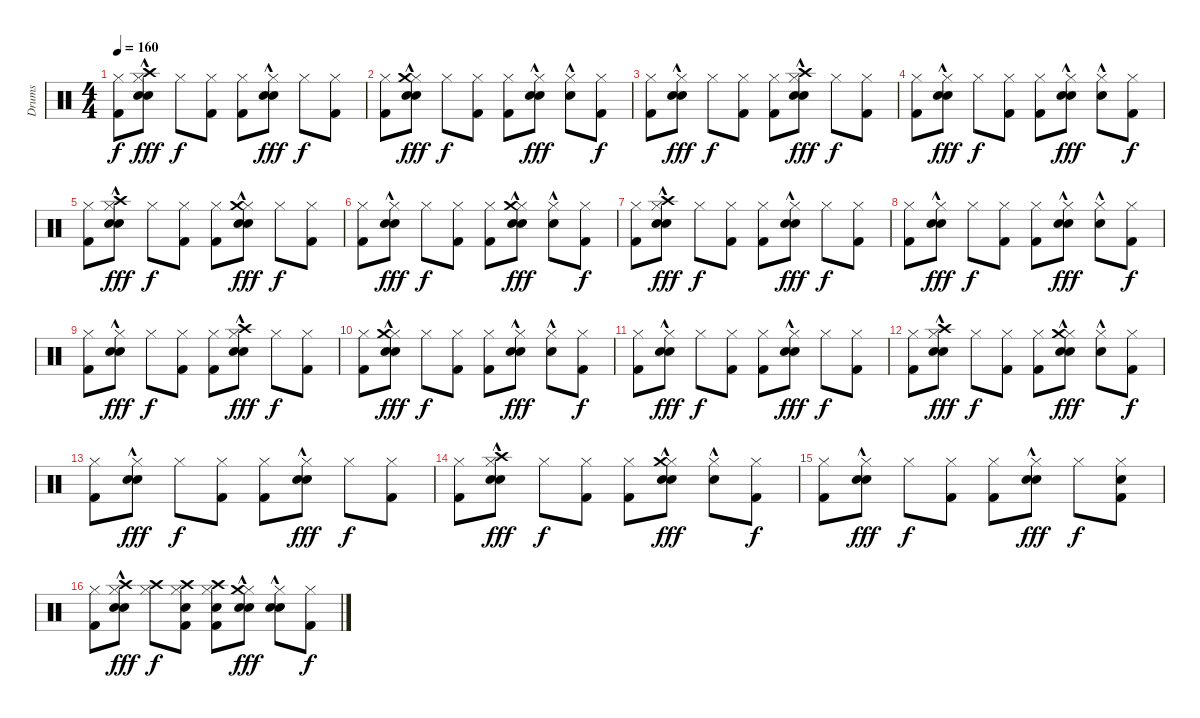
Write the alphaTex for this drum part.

\track ("Drums" "Drums") {instrument percussion}
\staff {score}
\articulation defaults
\ts (4 4)
\tempo 160
\clef neutral
\ks c
("Hi-Hat (closed)" "Kick (hit) 2").8{dy f} ("Hi-Hat (closed)" "Electric Snare (hit)" "Crash high (hit)" "Hand Clap (hit)"{hac}).8{dy fff} "Hi-Hat (closed)".8{dy f} ("Hi-Hat (closed)" "Kick (hit) 2").8 ("Hi-Hat (closed)" "Kick (hit) 2").8 ("Hi-Hat (closed)" "Electric Snare (hit)" "Hand Clap (hit)"{hac}).8{dy fff} "Hi-Hat (closed)".8{dy f} ("Hi-Hat (closed)" "Kick (hit) 2").8 |
("Hi-Hat (closed)" "Kick (hit) 2").8 ("Hi-Hat (closed)" "Electric Snare (hit)" "Crash medium (hit)" "Hand Clap (hit)"{hac}).8{dy fff} "Hi-Hat (closed)".8{dy f} ("Hi-Hat (closed)" "Kick (hit) 2").8 ("Hi-Hat (closed)" "Kick (hit) 2").8 ("Hi-Hat (closed)" "Electric Snare (hit)" "Hand Clap (hit)"{hac}).8{dy fff} ("Hi-Hat (closed)" "Hand Clap (hit)"{hac}).8 ("Hi-Hat (closed)" "Kick (hit) 2").8{dy f} |
("Hi-Hat (closed)" "Kick (hit) 2").8 ("Hi-Hat (closed)" "Electric Snare (hit)" "Hand Clap (hit)"{hac}).8{dy fff} "Hi-Hat (closed)".8{dy f} ("Hi-Hat (closed)" "Kick (hit) 2").8 ("Hi-Hat (closed)" "Kick (hit) 2").8 ("Hi-Hat (closed)" "Electric Snare (hit)" "Crash high (hit)" "Hand Clap (hit)"{hac}).8{dy fff} "Hi-Hat (closed)".8{dy f} ("Hi-Hat (closed)" "Kick (hit) 2").8 |
("Hi-Hat (closed)" "Kick (hit) 2").8 ("Hi-Hat (closed)" "Electric Snare (hit)" "Hand Clap (hit)"{hac}).8{dy fff} "Hi-Hat (closed)".8{dy f} ("Hi-Hat (closed)" "Kick (hit) 2").8 ("Hi-Hat (closed)" "Kick (hit) 2").8 ("Hi-Hat (closed)" "Electric Snare (hit)" "Hand Clap (hit)"{hac}).8{dy fff} ("Hi-Hat (closed)" "Hand Clap (hit)"{hac}).8 ("Hi-Hat (closed)" "Kick (hit) 2").8{dy f} |
("Hi-Hat (closed)" "Kick (hit) 2").8 ("Hi-Hat (closed)" "Electric Snare (hit)" "Crash high (hit)" "Hand Clap (hit)"{hac}).8{dy fff} "Hi-Hat (closed)".8{dy f} ("Hi-Hat (closed)" "Kick (hit) 2").8 ("Hi-Hat (closed)" "Kick (hit) 2").8 ("Hi-Hat (closed)" "Electric Snare (hit)" "Crash medium (hit)" "Hand Clap (hit)"{hac}).8{dy fff} "Hi-Hat (closed)".8{dy f} ("Hi-Hat (closed)" "Kick (hit) 2").8 |
("Hi-Hat (closed)" "Kick (hit) 2").8 ("Hi-Hat (closed)" "Electric Snare (hit)" "Hand Clap (hit)"{hac}).8{dy fff} "Hi-Hat (closed)".8{dy f} ("Hi-Hat (closed)" "Kick (hit) 2").8 ("Hi-Hat (closed)" "Kick (hit) 2").8 ("Hi-Hat (closed)" "Electric Snare (hit)" "Crash medium (hit)" "Hand Clap (hit)"{hac}).8{dy fff} ("Hi-Hat (closed)" "Hand Clap (hit)"{hac}).8 ("Hi-Hat (closed)" "Kick (hit) 2").8{dy f} |
("Hi-Hat (closed)" "Kick (hit) 2").8 ("Hi-Hat (closed)" "Electric Snare (hit)" "Crash high (hit)" "Hand Clap (hit)"{hac}).8{dy fff} "Hi-Hat (closed)".8{dy f} ("Hi-Hat (closed)" "Kick (hit) 2").8 ("Hi-Hat (closed)" "Kick (hit) 2").8 ("Hi-Hat (closed)" "Electric Snare (hit)" "Hand Clap (hit)"{hac}).8{dy fff} "Hi-Hat (closed)".8{dy f} ("Hi-Hat (closed)" "Kick (hit) 2").8 |
("Hi-Hat (closed)" "Kick (hit) 2").8 ("Hi-Hat (closed)" "Electric Snare (hit)" "Hand Clap (hit)"{hac}).8{dy fff} "Hi-Hat (closed)".8{dy f} ("Hi-Hat (closed)" "Kick (hit) 2").8 ("Hi-Hat (closed)" "Kick (hit) 2").8 ("Hi-Hat (closed)" "Electric Snare (hit)" "Hand Clap (hit)"{hac}).8{dy fff} ("Hi-Hat (closed)" "Hand Clap (hit)"{hac}).8 ("Hi-Hat (closed)" "Kick (hit) 2").8{dy f} |
("Hi-Hat (closed)" "Kick (hit) 2").8 ("Hi-Hat (closed)" "Electric Snare (hit)" "Hand Clap (hit)"{hac}).8{dy fff} "Hi-Hat (closed)".8{dy f} ("Hi-Hat (closed)" "Kick (hit) 2").8 ("Hi-Hat (closed)" "Kick (hit) 2").8 ("Hi-Hat (closed)" "Electric Snare (hit)" "Crash high (hit)" "Hand Clap (hit)"{hac}).8{dy fff} "Hi-Hat (closed)".8{dy f} ("Hi-Hat (closed)" "Kick (hit) 2").8 |
("Hi-Hat (closed)" "Kick (hit) 2").8 ("Hi-Hat (closed)" "Electric Snare (hit)" "Crash medium (hit)" "Hand Clap (hit)"{hac}).8{dy fff} "Hi-Hat (closed)".8{dy f} ("Hi-Hat (closed)" "Kick (hit) 2").8 ("Hi-Hat (closed)" "Kick (hit) 2").8 ("Hi-Hat (closed)" "Electric Snare (hit)" "Hand Clap (hit)"{hac}).8{dy fff} ("Hi-Hat (closed)" "Hand Clap (hit)"{hac}).8 ("Hi-Hat (closed)" "Kick (hit) 2").8{dy f} |
("Hi-Hat (closed)" "Kick (hit) 2").8 ("Hi-Hat (closed)" "Electric Snare (hit)" "Hand Clap (hit)"{hac}).8{dy fff} "Hi-Hat (closed)".8{dy f} ("Hi-Hat (closed)" "Kick (hit) 2").8 ("Hi-Hat (closed)" "Kick (hit) 2").8 ("Hi-Hat (closed)" "Electric Snare (hit)" "Hand Clap (hit)"{hac}).8{dy fff} "Hi-Hat (closed)".8{dy f} ("Hi-Hat (closed)" "Kick (hit) 2").8 |
("Hi-Hat (closed)" "Kick (hit) 2").8 ("Hi-Hat (closed)" "Electric Snare (hit)" "Crash high (hit)" "Hand Clap (hit)"{hac}).8{dy fff} "Hi-Hat (closed)".8{dy f} ("Hi-Hat (closed)" "Kick (hit) 2").8 ("Hi-Hat (closed)" "Kick (hit) 2").8 ("Hi-Hat (closed)" "Electric Snare (hit)" "Crash medium (hit)" "Hand Clap (hit)"{hac}).8{dy fff} ("Hi-Hat (closed)" "Hand Clap (hit)"{hac}).8 ("Hi-Hat (closed)" "Kick (hit) 2").8{dy f} |
("Hi-Hat (closed)" "Kick (hit) 2").8 ("Hi-Hat (closed)" "Electric Snare (hit)" "Hand Clap (hit)"{hac}).8{dy fff} "Hi-Hat (closed)".8{dy f} ("Hi-Hat (closed)" "Kick (hit) 2").8 ("Hi-Hat (closed)" "Kick (hit) 2").8 ("Hi-Hat (closed)" "Electric Snare (hit)" "Hand Clap (hit)"{hac}).8{dy fff} "Hi-Hat (closed)".8{dy f} ("Hi-Hat (closed)" "Kick (hit) 2").8 |
("Hi-Hat (closed)" "Kick (hit) 2").8 ("Hi-Hat (closed)" "Electric Snare (hit)" "Crash high (hit)" "Hand Clap (hit)"{hac}).8{dy fff} "Hi-Hat (closed)".8{dy f} ("Hi-Hat (closed)" "Kick (hit) 2").8 ("Hi-Hat (closed)" "Kick (hit) 2").8 ("Hi-Hat (closed)" "Electric Snare (hit)" "Crash medium (hit)" "Hand Clap (hit)"{hac}).8{dy fff} ("Hi-Hat (closed)" "Hand Clap (hit)"{hac}).8 ("Hi-Hat (closed)" "Kick (hit) 2").8{dy f} |
("Hi-Hat (closed)" "Kick (hit) 2").8 ("Hi-Hat (closed)" "Electric Snare (hit)" "Hand Clap (hit)"{hac}).8{dy fff} "Hi-Hat (closed)".8{dy f} ("Hi-Hat (closed)" "Kick (hit) 2").8 ("Hi-Hat (closed)" "Kick (hit) 2").8 ("Hi-Hat (closed)" "Electric Snare (hit)" "Hand Clap (hit)"{hac}).8{dy fff} "Hi-Hat (closed)".8{dy f} ("Hi-Hat (closed)" "Electric Snare (hit)" "Kick (hit) 2").8 |
("Hi-Hat (closed)" "Kick (hit) 2").8 ("Hi-Hat (closed)" "Electric Snare (hit)" "Crash high (hit)" "Hand Clap (hit)"{hac}).8{dy fff} ("Hi-Hat (closed)" "Crash high (hit)").8{dy f} ("Hi-Hat (closed)" "Electric Snare (hit)" "Crash high (hit)" "Kick (hit) 2").8 ("Hi-Hat (closed)" "Electric Snare (hit)" "Crash high (hit)" "Kick (hit) 2").8 ("Hi-Hat (closed)" "Electric Snare (hit)" "Crash medium (hit)" "Hand Clap (hit)"{hac}).8{dy fff} ("Hi-Hat (closed)" "Electric Snare (hit)" "Hand Clap (hit)"{hac}).8 ("Hi-Hat (closed)" "Kick (hit) 2").8{dy f}
